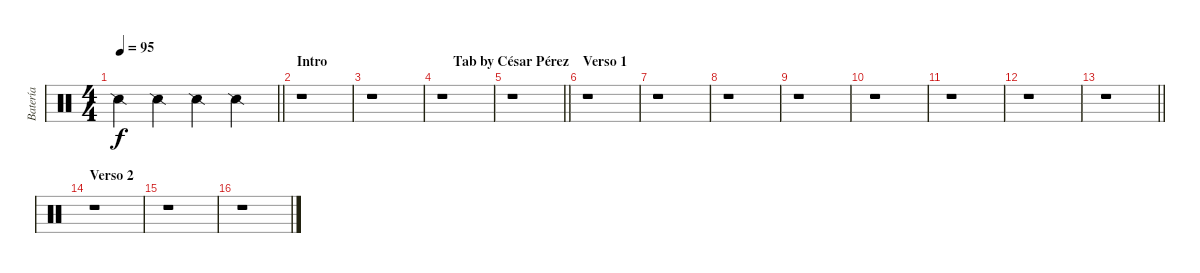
\track ("Batería" "Batería") {instrument percussion}
\staff {score}
\articulation defaults
\ts (4 4)
\tempo 95
\clef neutral
\barLineRight lightlight
\ks c "Snare (side stick) 2".4{dy f} "Snare (side stick) 2".4 "Snare (side stick) 2".4 "Snare (side stick) 2".4
|
\section ("" "Intro                                    Tab by César Pérez")
r.1 |
r.1 |
r.1 |
\barLineRight lightlight
r.1 |
\section ("" "Verso 1")
r.1 |
r.1 |
r.1 |
r.1 |
r.1 |
r.1 |
r.1 |
\barLineRight lightlight
r.1 |
\section ("" "Verso 2")
r.1 |
r.1 |
r.1
